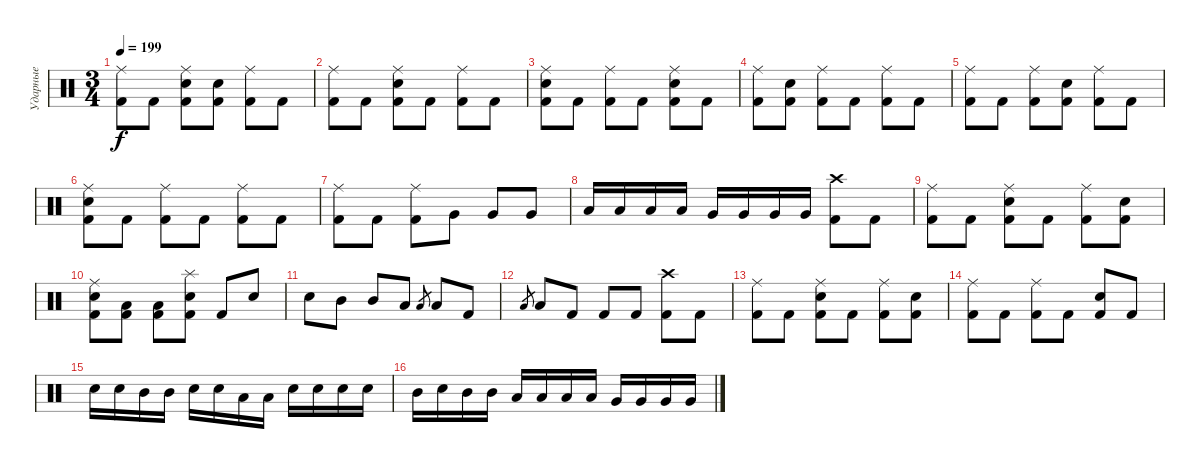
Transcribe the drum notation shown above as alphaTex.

\track ("Ударные" "Ударные") {instrument percussion}
\staff {score}
\articulation defaults
\ts (3 4)
\tempo 199
\clef neutral
\ks c
("Ride (middle)" "Kick (hit) 2").8{dy f} "Kick (hit) 2".8 ("Ride (middle)" "Snare (hit) 2" "Kick (hit) 2").8 ("Snare (hit) 2" "Kick (hit) 2").8 ("Ride (middle)" "Kick (hit) 2").8 "Kick (hit) 2".8 |
("Ride (middle)" "Kick (hit) 2").8 "Kick (hit) 2".8 ("Ride (middle)" "Snare (hit) 2" "Kick (hit) 2").8 "Kick (hit) 2".8 ("Ride (middle)" "Kick (hit) 2").8 "Kick (hit) 2".8 |
("Ride (middle)" "Snare (hit) 2" "Kick (hit) 2").8 "Kick (hit) 2".8 ("Ride (middle)" "Kick (hit) 2").8 "Kick (hit) 2".8 ("Ride (middle)" "Snare (hit) 2" "Kick (hit) 2").8 "Kick (hit) 2".8 |
("Ride (middle)" "Kick (hit) 2").8 ("Snare (hit) 2" "Kick (hit) 2").8 ("Ride (middle)" "Kick (hit) 2").8 "Kick (hit) 2".8 ("Ride (middle)" "Kick (hit) 2").8 "Kick (hit) 2".8 |
("Ride (middle)" "Kick (hit) 2").8 "Kick (hit) 2".8 ("Ride (middle)" "Kick (hit) 2").8 ("Snare (hit) 2" "Kick (hit) 2").8 ("Ride (middle)" "Kick (hit) 2").8 "Kick (hit) 2".8 |
("Ride (middle)" "Snare (hit) 2" "Kick (hit) 2").8 "Kick (hit) 2".8 ("Ride (middle)" "Kick (hit) 2").8 "Kick (hit) 2".8 ("Ride (middle)" "Kick (hit) 2").8 "Kick (hit) 2".8 |
("Ride (middle)" "Kick (hit) 2").8 "Kick (hit) 2".8 ("Ride (middle)" "Kick (hit) 2").8 "Very Low Tom (hit)".8 "Very Low Tom (hit)".8 "Very Low Tom (hit)".8 |
"Low Tom (hit)".16 "Low Tom (hit)".16 "Low Tom (hit)".16 "Low Tom (hit)".16 "Very Low Tom (hit)".16 "Very Low Tom (hit)".16 "Very Low Tom (hit)".16 "Very Low Tom (hit)".16 ("Crash high (hit)" "Kick (hit) 2").8 "Kick (hit) 2".8 |
("Ride (middle)" "Kick (hit) 2").8{volume 16} "Kick (hit) 2".8 ("Ride (middle)" "Snare (hit) 2" "Kick (hit) 2").8 "Kick (hit) 2".8 ("Ride (middle)" "Kick (hit) 2").8 ("Snare (hit) 2" "Kick (hit) 2").8 |
("Ride (middle)" "Snare (hit) 2" "Kick (hit) 2").8 ("Low Tom (hit)" "Kick (hit) 2").8 ("Low Tom (hit)" "Kick (hit) 2").8 ("Splash (hit)" "Snare (hit) 2" "Kick (hit) 2").8 "Kick (hit) 2".8 "Snare (hit) 2".8 |
"Snare (hit) 2".8 "Mid Tom (hit)".8 "Mid Tom (hit)".8 "Low Tom (hit)".8 "Low Tom (hit)".8{gr} "Low Tom (hit)".8 "Kick (hit) 2".8 |
"Low Tom (hit)".8{gr} "Low Tom (hit)".8 "Kick (hit) 2".8 "Kick (hit) 2".8 "Kick (hit) 2".8 ("Crash high (hit)" "Kick (hit) 2").8 "Kick (hit) 2".8 |
("Ride (middle)" "Kick (hit) 2").8{volume 12} "Kick (hit) 2".8 ("Ride (middle)" "Snare (hit) 2" "Kick (hit) 2").8 "Kick (hit) 2".8 ("Ride (middle)" "Kick (hit) 2").8 ("Snare (hit) 2" "Kick (hit) 2").8 |
("Ride (middle)" "Kick (hit) 2").8 "Kick (hit) 2".8 ("Ride (middle)" "Kick (hit) 2").8 "Kick (hit) 2".8 ("Snare (hit) 2" "Kick (hit) 2").8 "Kick (hit) 2".8 |
"Snare (hit) 2".16 "Snare (hit) 2".16 "Mid Tom (hit)".16 "Mid Tom (hit)".16 "Snare (hit) 2".16 "Snare (hit) 2".16 "Low Tom (hit)".16 "Low Tom (hit)".16 "Snare (hit) 2".16 "Snare (hit) 2".16 "Snare (hit) 2".16 "Snare (hit) 2".16 |
"Mid Tom (hit)".16 "Snare (hit) 2".16 "Mid Tom (hit)".16 "Mid Tom (hit)".16 "Low Tom (hit)".16 "Low Tom (hit)".16 "Low Tom (hit)".16 "Low Tom (hit)".16 "Very Low Tom (hit)".16 "Very Low Tom (hit)".16 "Very Low Tom (hit)".16 "Very Low Tom (hit)".16
